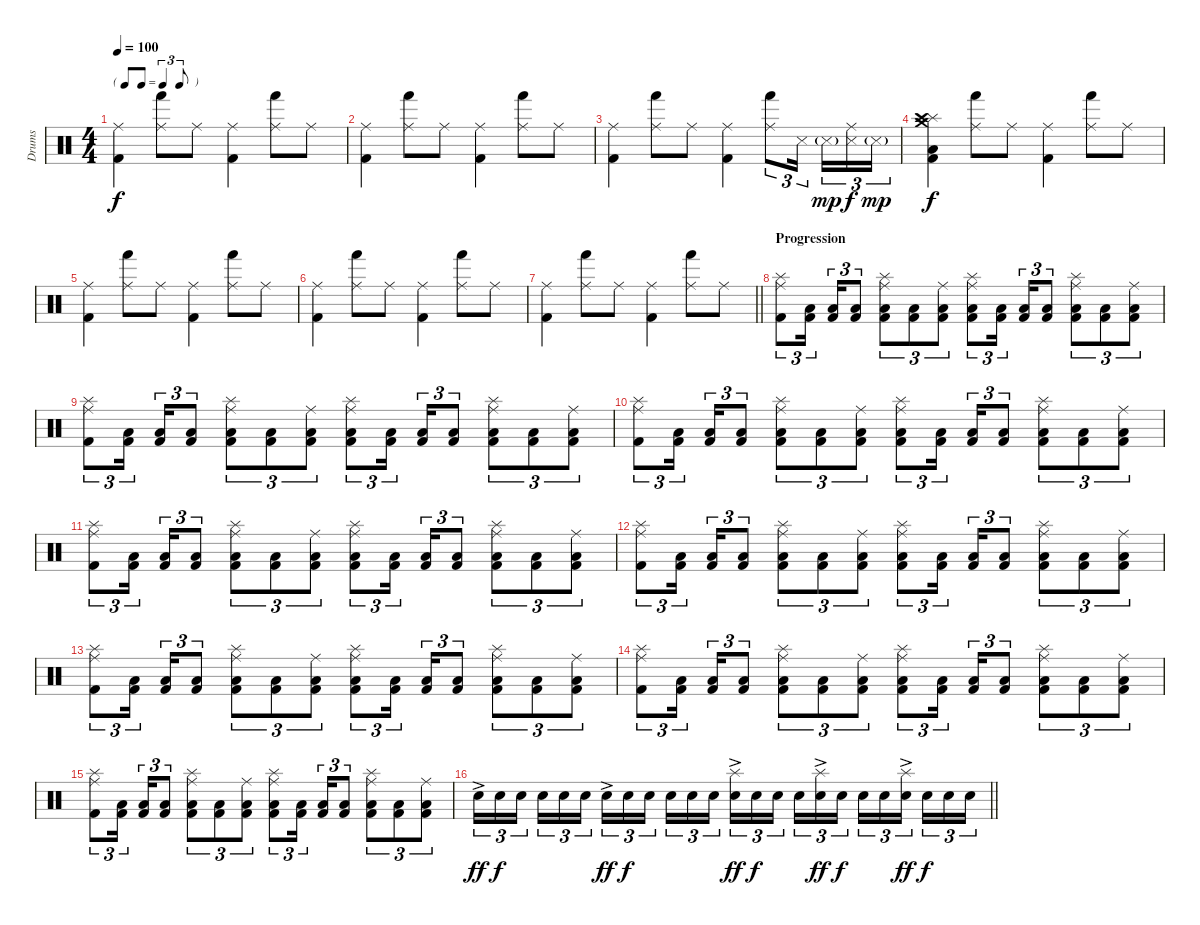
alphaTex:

\track ("Drums" "Drums") {instrument percussion}
\staff {score}
\articulation defaults
\ts (4 4)
\tf triplet8th
\tempo 100
\clef neutral
\ks c
("Ride (middle)" "Kick (hit) 2").4{dy f} ("Ride (middle)" "Hand (hit)").8 "Ride (middle)".8 ("Ride (middle)" "Kick (hit) 2").4 ("Ride (middle)" "Hand (hit)").8 "Ride (middle)".8 |
("Ride (middle)" "Kick (hit) 2").4 ("Ride (middle)" "Hand (hit)").8 "Ride (middle)".8 ("Ride (middle)" "Kick (hit) 2").4 ("Ride (middle)" "Hand (hit)").8 "Ride (middle)".8 |
("Ride (middle)" "Kick (hit) 2").4 ("Ride (middle)" "Hand (hit)").8 "Ride (middle)".8 ("Ride (middle)" "Kick (hit) 2").4 ("Ride (middle)" "Hand (hit)").8{tu (3 2)} "Snare (side stick) 3".16{tu (3 2) beam splitsecondary} "Snare (side stick) 3"{g}.16{tu (3 2) dy mp} ("Ride (middle)" "Snare (side stick) 3").16{tu (3 2) dy f} "Snare (side stick) 3"{g}.16{tu (3 2) dy mp} |
("Splash (hit)" "Crash medium (hit)" "Low Tom (hit)" "Crash high (hit)" "Kick (hit) 2").4{dy f} ("Ride (middle)" "Hand (hit)").8 "Ride (middle)".8 ("Ride (middle)" "Kick (hit) 2").4 ("Ride (middle)" "Hand (hit)").8 "Ride (middle)".8 |
("Ride (middle)" "Kick (hit) 2").4 ("Ride (middle)" "Hand (hit)").8 "Ride (middle)".8 ("Ride (middle)" "Kick (hit) 2").4 ("Ride (middle)" "Hand (hit)").8 "Ride (middle)".8 |
("Ride (middle)" "Kick (hit) 2").4 ("Ride (middle)" "Hand (hit)").8 "Ride (middle)".8 ("Ride (middle)" "Kick (hit) 2").4 ("Ride (middle)" "Hand (hit)").8 "Ride (middle)".8 |
\barLineRight lightlight
("Ride (middle)" "Kick (hit) 2").4 ("Ride (middle)" "Hand (hit)").8 "Ride (middle)".8 ("Ride (middle)" "Kick (hit) 2").4 ("Ride (middle)" "Hand (hit)").8 "Ride (middle)".8 |
\section ("" "Progression")
("Ride (middle)" "Splash (hit)" "Kick (hit) 2").8{tu (3 2) volume 12} ("Low Tom (hit)" "Kick (hit) 2").16{tu (3 2) beam splitsecondary} ("Low Tom (hit)" "Kick (hit) 2").16{tu (3 2)} ("Low Tom (hit)" "Kick (hit) 2").8{tu (3 2)} ("Ride (middle)" "Splash (hit)" "Low Tom (hit)" "Kick (hit) 2").8{tu (3 2)} ("Low Tom (hit)" "Kick (hit) 2").8{tu (3 2)} ("Ride (middle)" "Low Tom (hit)" "Kick (hit) 2").8{tu (3 2)} ("Ride (middle)" "Splash (hit)" "Low Tom (hit)" "Kick (hit) 2").8{tu (3 2)} ("Low Tom (hit)" "Kick (hit) 2").16{tu (3 2) beam splitsecondary} ("Low Tom (hit)" "Kick (hit) 2").16{tu (3 2)} ("Low Tom (hit)" "Kick (hit) 2").8{tu (3 2)} ("Ride (middle)" "Splash (hit)" "Low Tom (hit)" "Kick (hit) 2").8{tu (3 2)} ("Low Tom (hit)" "Kick (hit) 2").8{tu (3 2)} ("Ride (middle)" "Low Tom (hit)" "Kick (hit) 2").8{tu (3 2)} |
("Ride (middle)" "Splash (hit)" "Kick (hit) 2").8{tu (3 2)} ("Low Tom (hit)" "Kick (hit) 2").16{tu (3 2) beam splitsecondary} ("Low Tom (hit)" "Kick (hit) 2").16{tu (3 2)} ("Low Tom (hit)" "Kick (hit) 2").8{tu (3 2)} ("Ride (middle)" "Splash (hit)" "Low Tom (hit)" "Kick (hit) 2").8{tu (3 2)} ("Low Tom (hit)" "Kick (hit) 2").8{tu (3 2)} ("Ride (middle)" "Low Tom (hit)" "Kick (hit) 2").8{tu (3 2)} ("Ride (middle)" "Splash (hit)" "Low Tom (hit)" "Kick (hit) 2").8{tu (3 2)} ("Low Tom (hit)" "Kick (hit) 2").16{tu (3 2) beam splitsecondary} ("Low Tom (hit)" "Kick (hit) 2").16{tu (3 2)} ("Low Tom (hit)" "Kick (hit) 2").8{tu (3 2)} ("Ride (middle)" "Splash (hit)" "Low Tom (hit)" "Kick (hit) 2").8{tu (3 2)} ("Low Tom (hit)" "Kick (hit) 2").8{tu (3 2)} ("Ride (middle)" "Low Tom (hit)" "Kick (hit) 2").8{tu (3 2)} |
("Ride (middle)" "Splash (hit)" "Kick (hit) 2").8{tu (3 2)} ("Low Tom (hit)" "Kick (hit) 2").16{tu (3 2) beam splitsecondary} ("Low Tom (hit)" "Kick (hit) 2").16{tu (3 2)} ("Low Tom (hit)" "Kick (hit) 2").8{tu (3 2)} ("Ride (middle)" "Splash (hit)" "Low Tom (hit)" "Kick (hit) 2").8{tu (3 2)} ("Low Tom (hit)" "Kick (hit) 2").8{tu (3 2)} ("Ride (middle)" "Low Tom (hit)" "Kick (hit) 2").8{tu (3 2)} ("Ride (middle)" "Splash (hit)" "Low Tom (hit)" "Kick (hit) 2").8{tu (3 2)} ("Low Tom (hit)" "Kick (hit) 2").16{tu (3 2) beam splitsecondary} ("Low Tom (hit)" "Kick (hit) 2").16{tu (3 2)} ("Low Tom (hit)" "Kick (hit) 2").8{tu (3 2)} ("Ride (middle)" "Splash (hit)" "Low Tom (hit)" "Kick (hit) 2").8{tu (3 2)} ("Low Tom (hit)" "Kick (hit) 2").8{tu (3 2)} ("Ride (middle)" "Low Tom (hit)" "Kick (hit) 2").8{tu (3 2)} |
("Ride (middle)" "Splash (hit)" "Kick (hit) 2").8{tu (3 2)} ("Low Tom (hit)" "Kick (hit) 2").16{tu (3 2) beam splitsecondary} ("Low Tom (hit)" "Kick (hit) 2").16{tu (3 2)} ("Low Tom (hit)" "Kick (hit) 2").8{tu (3 2)} ("Ride (middle)" "Splash (hit)" "Low Tom (hit)" "Kick (hit) 2").8{tu (3 2)} ("Low Tom (hit)" "Kick (hit) 2").8{tu (3 2)} ("Ride (middle)" "Low Tom (hit)" "Kick (hit) 2").8{tu (3 2)} ("Ride (middle)" "Splash (hit)" "Low Tom (hit)" "Kick (hit) 2").8{tu (3 2)} ("Low Tom (hit)" "Kick (hit) 2").16{tu (3 2) beam splitsecondary} ("Low Tom (hit)" "Kick (hit) 2").16{tu (3 2)} ("Low Tom (hit)" "Kick (hit) 2").8{tu (3 2)} ("Ride (middle)" "Splash (hit)" "Low Tom (hit)" "Kick (hit) 2").8{tu (3 2)} ("Low Tom (hit)" "Kick (hit) 2").8{tu (3 2)} ("Ride (middle)" "Low Tom (hit)" "Kick (hit) 2").8{tu (3 2)} |
("Ride (middle)" "Splash (hit)" "Kick (hit) 2").8{tu (3 2)} ("Low Tom (hit)" "Kick (hit) 2").16{tu (3 2) beam splitsecondary} ("Low Tom (hit)" "Kick (hit) 2").16{tu (3 2)} ("Low Tom (hit)" "Kick (hit) 2").8{tu (3 2)} ("Ride (middle)" "Splash (hit)" "Low Tom (hit)" "Kick (hit) 2").8{tu (3 2)} ("Low Tom (hit)" "Kick (hit) 2").8{tu (3 2)} ("Ride (middle)" "Low Tom (hit)" "Kick (hit) 2").8{tu (3 2)} ("Ride (middle)" "Splash (hit)" "Low Tom (hit)" "Kick (hit) 2").8{tu (3 2)} ("Low Tom (hit)" "Kick (hit) 2").16{tu (3 2) beam splitsecondary} ("Low Tom (hit)" "Kick (hit) 2").16{tu (3 2)} ("Low Tom (hit)" "Kick (hit) 2").8{tu (3 2)} ("Ride (middle)" "Splash (hit)" "Low Tom (hit)" "Kick (hit) 2").8{tu (3 2)} ("Low Tom (hit)" "Kick (hit) 2").8{tu (3 2)} ("Ride (middle)" "Low Tom (hit)" "Kick (hit) 2").8{tu (3 2)} |
("Ride (middle)" "Splash (hit)" "Kick (hit) 2").8{tu (3 2) volume 16} ("Low Tom (hit)" "Kick (hit) 2").16{tu (3 2) beam splitsecondary} ("Low Tom (hit)" "Kick (hit) 2").16{tu (3 2)} ("Low Tom (hit)" "Kick (hit) 2").8{tu (3 2)} ("Ride (middle)" "Splash (hit)" "Low Tom (hit)" "Kick (hit) 2").8{tu (3 2)} ("Low Tom (hit)" "Kick (hit) 2").8{tu (3 2)} ("Ride (middle)" "Low Tom (hit)" "Kick (hit) 2").8{tu (3 2)} ("Ride (middle)" "Splash (hit)" "Low Tom (hit)" "Kick (hit) 2").8{tu (3 2)} ("Low Tom (hit)" "Kick (hit) 2").16{tu (3 2) beam splitsecondary} ("Low Tom (hit)" "Kick (hit) 2").16{tu (3 2)} ("Low Tom (hit)" "Kick (hit) 2").8{tu (3 2)} ("Ride (middle)" "Splash (hit)" "Low Tom (hit)" "Kick (hit) 2").8{tu (3 2)} ("Low Tom (hit)" "Kick (hit) 2").8{tu (3 2)} ("Ride (middle)" "Low Tom (hit)" "Kick (hit) 2").8{tu (3 2)} |
("Ride (middle)" "Splash (hit)" "Kick (hit) 2").8{tu (3 2)} ("Low Tom (hit)" "Kick (hit) 2").16{tu (3 2) beam splitsecondary} ("Low Tom (hit)" "Kick (hit) 2").16{tu (3 2)} ("Low Tom (hit)" "Kick (hit) 2").8{tu (3 2)} ("Ride (middle)" "Splash (hit)" "Low Tom (hit)" "Kick (hit) 2").8{tu (3 2)} ("Low Tom (hit)" "Kick (hit) 2").8{tu (3 2)} ("Ride (middle)" "Low Tom (hit)" "Kick (hit) 2").8{tu (3 2)} ("Ride (middle)" "Splash (hit)" "Low Tom (hit)" "Kick (hit) 2").8{tu (3 2)} ("Low Tom (hit)" "Kick (hit) 2").16{tu (3 2) beam splitsecondary} ("Low Tom (hit)" "Kick (hit) 2").16{tu (3 2)} ("Low Tom (hit)" "Kick (hit) 2").8{tu (3 2)} ("Ride (middle)" "Splash (hit)" "Low Tom (hit)" "Kick (hit) 2").8{tu (3 2)} ("Low Tom (hit)" "Kick (hit) 2").8{tu (3 2)} ("Ride (middle)" "Low Tom (hit)" "Kick (hit) 2").8{tu (3 2)} |
("Ride (middle)" "Splash (hit)" "Kick (hit) 2").8{tu (3 2)} ("Low Tom (hit)" "Kick (hit) 2").16{tu (3 2) beam splitsecondary} ("Low Tom (hit)" "Kick (hit) 2").16{tu (3 2)} ("Low Tom (hit)" "Kick (hit) 2").8{tu (3 2)} ("Ride (middle)" "Splash (hit)" "Low Tom (hit)" "Kick (hit) 2").8{tu (3 2)} ("Low Tom (hit)" "Kick (hit) 2").8{tu (3 2)} ("Ride (middle)" "Low Tom (hit)" "Kick (hit) 2").8{tu (3 2)} ("Ride (middle)" "Splash (hit)" "Low Tom (hit)" "Kick (hit) 2").8{tu (3 2)} ("Low Tom (hit)" "Kick (hit) 2").16{tu (3 2) beam splitsecondary} ("Low Tom (hit)" "Kick (hit) 2").16{tu (3 2)} ("Low Tom (hit)" "Kick (hit) 2").8{tu (3 2)} ("Ride (middle)" "Splash (hit)" "Low Tom (hit)" "Kick (hit) 2").8{tu (3 2)} ("Low Tom (hit)" "Kick (hit) 2").8{tu (3 2)} ("Ride (middle)" "Low Tom (hit)" "Kick (hit) 2").8{tu (3 2)} |
\barLineRight lightlight "Electric Snare (hit)"{ac}.16{tu (3 2) dy ff} "Electric Snare (hit)".16{tu (3 2) dy f} "Electric Snare (hit)".16{tu (3 2) beam splitsecondary} "Electric Snare (hit)".16{tu (3 2)} "Electric Snare (hit)".16{tu (3 2)} "Electric Snare (hit)".16{tu (3 2)} "Electric Snare (hit)"{ac}.16{tu (3 2) dy ff} "Electric Snare (hit)".16{tu (3 2) dy f} "Electric Snare (hit)".16{tu (3 2) beam splitsecondary} "Electric Snare (hit)".16{tu (3 2)} "Electric Snare (hit)".16{tu (3 2)} "Electric Snare (hit)".16{tu (3 2)}
("Splash (hit)" "Electric Snare (hit)"{ac}).16{tu (3 2) dy ff} "Electric Snare (hit)".16{tu (3 2) dy f} "Electric Snare (hit)".16{tu (3 2) beam splitsecondary} "Electric Snare (hit)".16{tu (3 2)} ("Splash (hit)" "Electric Snare (hit)"{ac}).16{tu (3 2) dy ff} "Electric Snare (hit)".16{tu (3 2) dy f} "Electric Snare (hit)".16{tu (3 2)} "Electric Snare (hit)".16{tu (3 2)} ("Splash (hit)" "Electric Snare (hit)"{ac}).16{tu (3 2) dy ff beam splitsecondary} "Electric Snare (hit)".16{tu (3 2) dy f} "Electric Snare (hit)".16{tu (3 2)} "Electric Snare (hit)".16{tu (3 2)}
